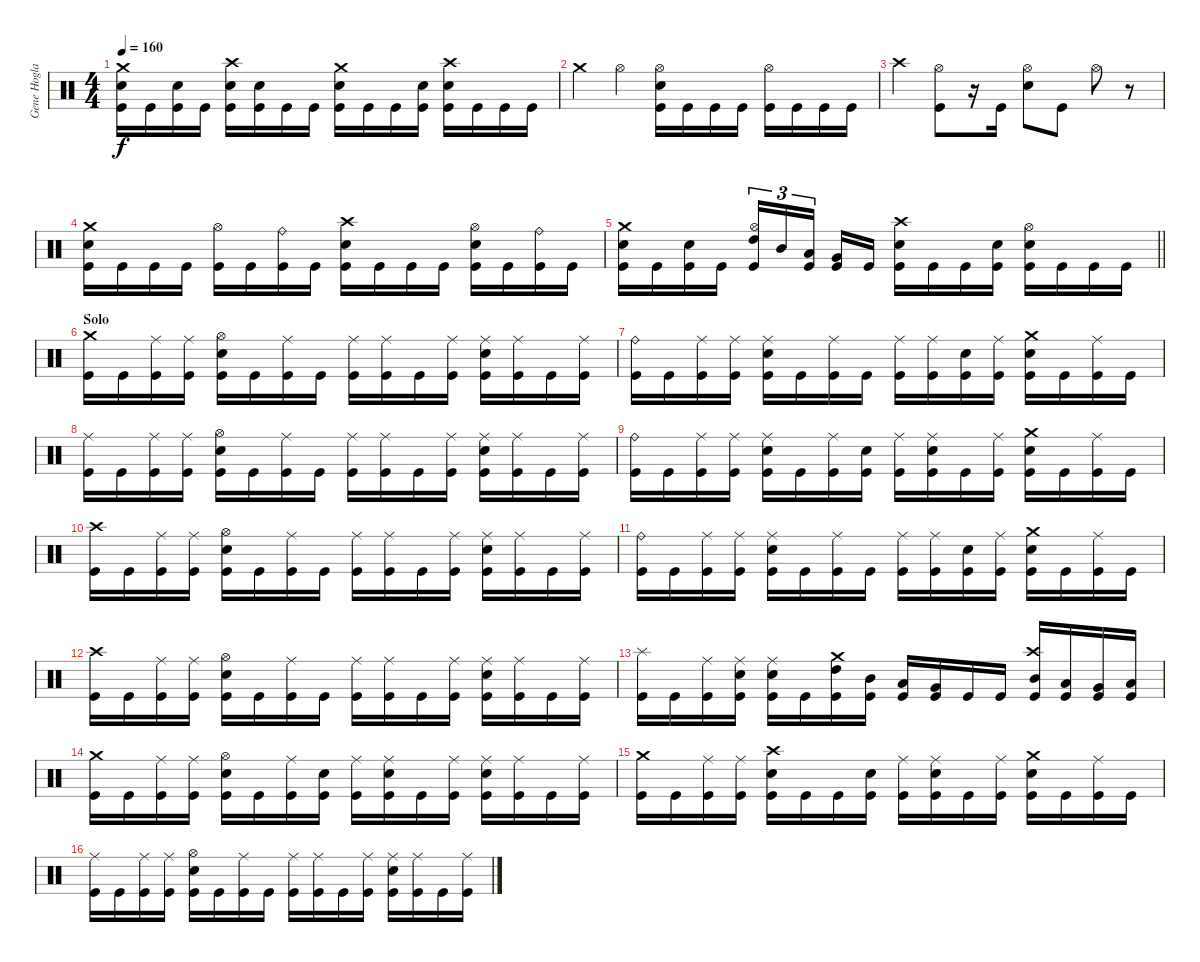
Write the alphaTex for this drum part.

\track ("Gene Hoglan" "Gene Hogla") {instrument percussion}
\staff {score}
\articulation defaults
\ts (4 4)
\tempo 160
\clef neutral
\ks c
("Crash medium (hit)" "Electric Snare (hit)" "Kick (hit)").16{dy f} "Kick (hit)".16 ("Electric Snare (hit)" "Kick (hit)").16 "Kick (hit)".16 ("Crash high (hit)" "Electric Snare (hit)" "Kick (hit)").16 ("Electric Snare (hit)" "Kick (hit)").16 "Kick (hit)".16 "Kick (hit)".16 ("Crash medium (hit)" "Electric Snare (hit)" "Kick (hit)").16 "Kick (hit)".16 "Kick (hit)".16 ("Electric Snare (hit)" "Kick (hit)").16 ("Crash high (hit)" "Electric Snare (hit)" "Kick (hit)").16 "Kick (hit)".16 "Kick (hit)".16 "Kick (hit)".16 |
"Crash medium (hit)".4 "Hi-Hat (open)".4 ("Hi-Hat (open)" "Electric Snare (hit)" "Kick (hit)").16 "Kick (hit)".16 "Kick (hit)".16 "Kick (hit)".16 ("Hi-Hat (open)" "Kick (hit)").16 "Kick (hit)".16 "Kick (hit)".16 "Kick (hit)".16 |
"Crash high (hit)".4 ("Hi-Hat (open)" "Kick (hit)").8 r.16 "Kick (hit)".16 ("Hi-Hat (open)" "Electric Snare (hit)").8 "Kick (hit)".8 "Hi-Hat (open)".8 r.8 |
("Crash medium (hit)" "Electric Snare (hit)" "Kick (hit)").16 "Kick (hit)".16 "Kick (hit)".16 "Kick (hit)".16 ("Hi-Hat (open)" "Kick (hit)").16 "Kick (hit)".16 ("Ride (bell)" "Kick (hit)").16 "Kick (hit)".16 ("Crash high (hit)" "Electric Snare (hit)" "Kick (hit)").16 "Kick (hit)".16 "Kick (hit)".16 "Kick (hit)".16 ("Hi-Hat (open)" "Electric Snare (hit)" "Kick (hit)").16 "Kick (hit)".16 ("Ride (bell)" "Kick (hit)").16 "Kick (hit)".16 |
\barLineRight lightlight
("Crash medium (hit)" "Electric Snare (hit)" "Kick (hit)").16 "Kick (hit)".16 ("Electric Snare (hit)" "Kick (hit)").16 "Kick (hit)".16 ("Hi-Hat (open)" "High Tom (hit)" "Kick (hit)").16{tu (3 2)} "Mid Tom (hit)".16{tu (3 2)} ("Low Tom (hit)" "Kick (hit)").16{tu (3 2) beam splitsecondary} ("Very Low Tom (hit)" "Kick (hit)").16 "Kick (hit)".16 ("Crash high (hit)" "Electric Snare (hit)" "Kick (hit)").16 "Kick (hit)".16 "Kick (hit)".16 ("Electric Snare (hit)" "Kick (hit)").16 ("Hi-Hat (open)" "Electric Snare (hit)" "Kick (hit)").16 "Kick (hit)".16 "Kick (hit)".16 "Kick (hit)".16 |
\section ("" "Solo")
("Crash medium (hit)" "Kick (hit)").16 "Kick (hit)".16 ("Ride (middle)" "Kick (hit)").16 ("Ride (middle)" "Kick (hit)").16 ("Hi-Hat (open)" "Electric Snare (hit)" "Kick (hit)").16 "Kick (hit)".16 ("Ride (middle)" "Kick (hit)").16 "Kick (hit)".16 ("Ride (middle)" "Kick (hit)").16 ("Ride (middle)" "Kick (hit)").16 "Kick (hit)".16 ("Ride (middle)" "Kick (hit)").16 ("Ride (middle)" "Electric Snare (hit)" "Kick (hit)").16 ("Ride (middle)" "Kick (hit)").16 "Kick (hit)".16 ("Ride (middle)" "Kick (hit)").16 |
("Ride (bell)" "Kick (hit)").16 "Kick (hit)".16 ("Ride (middle)" "Kick (hit)").16 ("Ride (middle)" "Kick (hit)").16 ("Ride (middle)" "Electric Snare (hit)" "Kick (hit)").16 "Kick (hit)".16 ("Ride (middle)" "Kick (hit)").16 "Kick (hit)".16 ("Ride (middle)" "Kick (hit)").16 ("Ride (middle)" "Kick (hit)").16 ("Electric Snare (hit)" "Kick (hit)").16 ("Ride (middle)" "Kick (hit)").16 ("Crash medium (hit)" "Electric Snare (hit)" "Kick (hit)").16 "Kick (hit)".16 ("Ride (middle)" "Kick (hit)").16 "Kick (hit)".16 |
("Ride (middle)" "Kick (hit)").16 "Kick (hit)".16 ("Ride (middle)" "Kick (hit)").16 ("Ride (middle)" "Kick (hit)").16 ("Hi-Hat (open)" "Electric Snare (hit)" "Kick (hit)").16 "Kick (hit)".16 ("Ride (middle)" "Kick (hit)").16 "Kick (hit)".16 ("Ride (middle)" "Kick (hit)").16 ("Ride (middle)" "Kick (hit)").16 "Kick (hit)".16 ("Ride (middle)" "Kick (hit)").16 ("Ride (middle)" "Electric Snare (hit)" "Kick (hit)").16 ("Ride (middle)" "Kick (hit)").16 "Kick (hit)".16 ("Ride (middle)" "Kick (hit)").16 |
("Ride (bell)" "Kick (hit)").16 "Kick (hit)".16 ("Ride (middle)" "Kick (hit)").16 ("Ride (middle)" "Kick (hit)").16 ("Ride (middle)" "Electric Snare (hit)" "Kick (hit)").16 "Kick (hit)".16 ("Ride (middle)" "Kick (hit)").16 ("Electric Snare (hit)" "Kick (hit)").16 ("Ride (middle)" "Kick (hit)").16 ("Ride (middle)" "Electric Snare (hit)" "Kick (hit)").16 "Kick (hit)".16 ("Ride (middle)" "Kick (hit)").16 ("Crash medium (hit)" "Electric Snare (hit)" "Kick (hit)").16 "Kick (hit)".16 ("Ride (middle)" "Kick (hit)").16 "Kick (hit)".16 |
("Crash high (hit)" "Kick (hit)").16 "Kick (hit)".16 ("Ride (middle)" "Kick (hit)").16 ("Ride (middle)" "Kick (hit)").16 ("Hi-Hat (open)" "Electric Snare (hit)" "Kick (hit)").16 "Kick (hit)".16 ("Ride (middle)" "Kick (hit)").16 "Kick (hit)".16 ("Ride (middle)" "Kick (hit)").16 ("Ride (middle)" "Kick (hit)").16 "Kick (hit)".16 ("Ride (middle)" "Kick (hit)").16 ("Ride (middle)" "Electric Snare (hit)" "Kick (hit)").16 ("Ride (middle)" "Kick (hit)").16 "Kick (hit)".16 ("Ride (middle)" "Kick (hit)").16 |
("Ride (bell)" "Kick (hit)").16 "Kick (hit)".16 ("Ride (middle)" "Kick (hit)").16 ("Ride (middle)" "Kick (hit)").16 ("Ride (middle)" "Electric Snare (hit)" "Kick (hit)").16 "Kick (hit)".16 ("Ride (middle)" "Kick (hit)").16 "Kick (hit)".16 ("Ride (middle)" "Kick (hit)").16 ("Ride (middle)" "Kick (hit)").16 ("Electric Snare (hit)" "Kick (hit)").16 ("Ride (middle)" "Kick (hit)").16 ("Crash medium (hit)" "Electric Snare (hit)" "Kick (hit)").16 "Kick (hit)".16 ("Ride (middle)" "Kick (hit)").16 "Kick (hit)".16 |
("Crash high (hit)" "Kick (hit)").16 "Kick (hit)".16 ("Ride (middle)" "Kick (hit)").16 ("Ride (middle)" "Kick (hit)").16 ("Hi-Hat (open)" "Electric Snare (hit)" "Kick (hit)").16 "Kick (hit)".16 ("Ride (middle)" "Kick (hit)").16 "Kick (hit)".16 ("Ride (middle)" "Kick (hit)").16 ("Ride (middle)" "Kick (hit)").16 "Kick (hit)".16 ("Ride (middle)" "Kick (hit)").16 ("Ride (middle)" "Electric Snare (hit)" "Kick (hit)").16 ("Ride (middle)" "Kick (hit)").16 "Kick (hit)".16 ("Ride (middle)" "Kick (hit)").16 |
("Splash (hit)" "Kick (hit)").16 "Kick (hit)".16 ("Ride (middle)" "Kick (hit)").16 ("Ride (middle)" "Electric Snare (hit)" "Kick (hit)").16 ("Ride (middle)" "Electric Snare (hit)" "Kick (hit)").16 "Kick (hit)".16 ("Crash medium (hit)" "High Tom (hit)" "Kick (hit)").16 ("Mid Tom (hit)" "Kick (hit)").16 ("Low Tom (hit)" "Kick (hit)").16 ("Very Low Tom (hit)" "Kick (hit)").16 "Kick (hit)".16 "Kick (hit)".16 ("Crash high (hit)" "Mid Tom (hit)" "Kick (hit)").16 ("Low Tom (hit)" "Kick (hit)").16 ("Very Low Tom (hit)" "Kick (hit)").16 ("Low Floor Tom (hit)" "Kick (hit)").16 |
("Crash medium (hit)" "Kick (hit)").16 "Kick (hit)".16 ("Ride (middle)" "Kick (hit)").16 ("Ride (middle)" "Kick (hit)").16 ("Hi-Hat (open)" "Electric Snare (hit)" "Kick (hit)").16 "Kick (hit)".16 ("Ride (middle)" "Kick (hit)").16 ("Electric Snare (hit)" "Kick (hit)").16 ("Ride (middle)" "Kick (hit)").16 ("Ride (middle)" "Electric Snare (hit)" "Kick (hit)").16 "Kick (hit)".16 ("Ride (middle)" "Kick (hit)").16 ("Ride (middle)" "Electric Snare (hit)" "Kick (hit)").16 ("Ride (middle)" "Kick (hit)").16 "Kick (hit)".16 ("Ride (middle)" "Kick (hit)").16 |
("Crash medium (hit)" "Kick (hit)").16 "Kick (hit)".16 ("Ride (middle)" "Kick (hit)").16 ("Ride (middle)" "Kick (hit)").16 ("Crash high (hit)" "Electric Snare (hit)" "Kick (hit)").16 "Kick (hit)".16 "Kick (hit)".16 ("Electric Snare (hit)" "Kick (hit)").16 ("Ride (middle)" "Kick (hit)").16 ("Ride (middle)" "Electric Snare (hit)" "Kick (hit)").16 "Kick (hit)".16 ("Ride (middle)" "Kick (hit)").16 ("Crash medium (hit)" "Electric Snare (hit)" "Kick (hit)").16 "Kick (hit)".16 ("Ride (middle)" "Kick (hit)").16 "Kick (hit)".16 |
("Ride (middle)" "Kick (hit)").16 "Kick (hit)".16 ("Ride (middle)" "Kick (hit)").16 ("Ride (middle)" "Kick (hit)").16 ("Hi-Hat (open)" "Electric Snare (hit)" "Kick (hit)").16 "Kick (hit)".16 ("Ride (middle)" "Kick (hit)").16 "Kick (hit)".16 ("Ride (middle)" "Kick (hit)").16 ("Ride (middle)" "Kick (hit)").16 "Kick (hit)".16 ("Ride (middle)" "Kick (hit)").16 ("Ride (middle)" "Electric Snare (hit)" "Kick (hit)").16 ("Ride (middle)" "Kick (hit)").16 "Kick (hit)".16 ("Ride (middle)" "Kick (hit)").16
